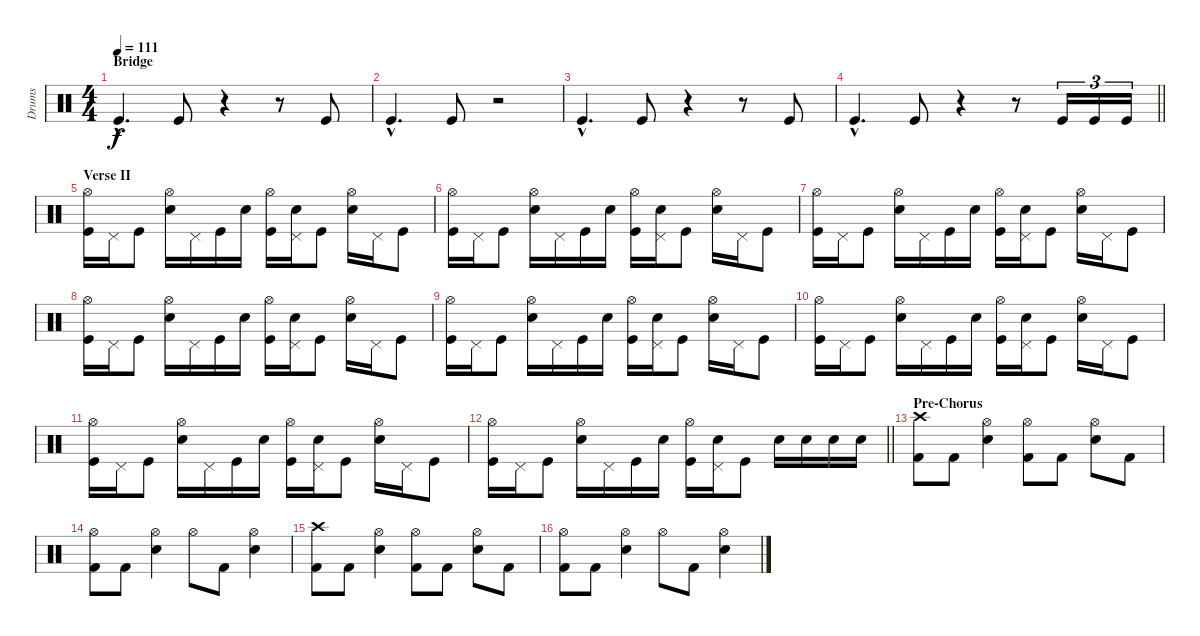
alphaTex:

\track ("Drums" "Drums") {instrument percussion}
\staff {score}
\articulation defaults
\ts (4 4)
\section ("" "Bridge")
\tempo 111
\clef neutral
\ks c "Kick (hit)"{hac}.4{d dy f} "Kick (hit)".8
r.4 r.8 "Kick (hit)".8 |
"Kick (hit)"{hac}.4{d} "Kick (hit)".8 r.2 |
"Kick (hit)"{hac}.4{d} "Kick (hit)".8 r.4 r.8 "Kick (hit)".8 |
\barLineRight lightlight "Kick (hit)"{hac}.4{d} "Kick (hit)".8
r.4 r.8 "Kick (hit)".16{tu (3 2)} "Kick (hit)".16{tu (3 2)} "Kick (hit)".16{tu (3 2)} |
\section ("" "Verse II")
("Hi-Hat (open)" "Kick (hit)").16 "Pedal Hi-Hat (hit)".16 "Kick (hit)".8 ("Hi-Hat (open)" "Electric Snare (hit)").16 "Pedal Hi-Hat (hit)".16 "Kick (hit)".16 "Electric Snare (hit)".16 ("Hi-Hat (open)" "Kick (hit)").16 ("Pedal Hi-Hat (hit)" "Electric Snare (hit)").16 "Kick (hit)".8 ("Hi-Hat (open)" "Electric Snare (hit)").16 "Pedal Hi-Hat (hit)".16 "Kick (hit)".8 |
("Hi-Hat (open)" "Kick (hit)").16 "Pedal Hi-Hat (hit)".16 "Kick (hit)".8 ("Hi-Hat (open)" "Electric Snare (hit)").16 "Pedal Hi-Hat (hit)".16 "Kick (hit)".16 "Electric Snare (hit)".16 ("Hi-Hat (open)" "Kick (hit)").16 ("Pedal Hi-Hat (hit)" "Electric Snare (hit)").16 "Kick (hit)".8 ("Hi-Hat (open)" "Electric Snare (hit)").16 "Pedal Hi-Hat (hit)".16 "Kick (hit)".8 |
("Hi-Hat (open)" "Kick (hit)").16 "Pedal Hi-Hat (hit)".16 "Kick (hit)".8 ("Hi-Hat (open)" "Electric Snare (hit)").16 "Pedal Hi-Hat (hit)".16 "Kick (hit)".16 "Electric Snare (hit)".16 ("Hi-Hat (open)" "Kick (hit)").16 ("Pedal Hi-Hat (hit)" "Electric Snare (hit)").16 "Kick (hit)".8 ("Hi-Hat (open)" "Electric Snare (hit)").16 "Pedal Hi-Hat (hit)".16 "Kick (hit)".8 |
("Hi-Hat (open)" "Kick (hit)").16 "Pedal Hi-Hat (hit)".16 "Kick (hit)".8 ("Hi-Hat (open)" "Electric Snare (hit)").16 "Pedal Hi-Hat (hit)".16 "Kick (hit)".16 "Electric Snare (hit)".16 ("Hi-Hat (open)" "Kick (hit)").16 ("Pedal Hi-Hat (hit)" "Electric Snare (hit)").16 "Kick (hit)".8 ("Hi-Hat (open)" "Electric Snare (hit)").16 "Pedal Hi-Hat (hit)".16 "Kick (hit)".8 |
("Hi-Hat (open)" "Kick (hit)").16 "Pedal Hi-Hat (hit)".16 "Kick (hit)".8 ("Hi-Hat (open)" "Electric Snare (hit)").16 "Pedal Hi-Hat (hit)".16 "Kick (hit)".16 "Electric Snare (hit)".16 ("Hi-Hat (open)" "Kick (hit)").16 ("Pedal Hi-Hat (hit)" "Electric Snare (hit)").16 "Kick (hit)".8 ("Hi-Hat (open)" "Electric Snare (hit)").16 "Pedal Hi-Hat (hit)".16 "Kick (hit)".8 |
("Hi-Hat (open)" "Kick (hit)").16 "Pedal Hi-Hat (hit)".16 "Kick (hit)".8 ("Hi-Hat (open)" "Electric Snare (hit)").16 "Pedal Hi-Hat (hit)".16 "Kick (hit)".16 "Electric Snare (hit)".16 ("Hi-Hat (open)" "Kick (hit)").16 ("Pedal Hi-Hat (hit)" "Electric Snare (hit)").16 "Kick (hit)".8 ("Hi-Hat (open)" "Electric Snare (hit)").16 "Pedal Hi-Hat (hit)".16 "Kick (hit)".8 |
("Hi-Hat (open)" "Kick (hit)").16 "Pedal Hi-Hat (hit)".16 "Kick (hit)".8 ("Hi-Hat (open)" "Electric Snare (hit)").16 "Pedal Hi-Hat (hit)".16 "Kick (hit)".16 "Electric Snare (hit)".16 ("Hi-Hat (open)" "Kick (hit)").16 ("Pedal Hi-Hat (hit)" "Electric Snare (hit)").16 "Kick (hit)".8 ("Hi-Hat (open)" "Electric Snare (hit)").16 "Pedal Hi-Hat (hit)".16 "Kick (hit)".8 |
\barLineRight lightlight
("Hi-Hat (open)" "Kick (hit)").16 "Pedal Hi-Hat (hit)".16 "Kick (hit)".8 ("Hi-Hat (open)" "Electric Snare (hit)").16 "Pedal Hi-Hat (hit)".16 "Kick (hit)".16 "Electric Snare (hit)".16 ("Hi-Hat (open)" "Kick (hit)").16 ("Pedal Hi-Hat (hit)" "Electric Snare (hit)").16 "Kick (hit)".8 "Snare (hit) 2".16 "Snare (hit) 2".16 "Snare (hit) 2".16 "Snare (hit) 2".16 |
\section ("" "Pre-Chorus ")
("Crash high (hit)" "Kick (hit) 2").8 "Kick (hit) 2".8 ("Hi-Hat (open)" "Snare (hit) 2").4 ("Hi-Hat (open)" "Kick (hit) 2").8 "Kick (hit) 2".8 ("Hi-Hat (open)" "Snare (hit) 2").8 "Kick (hit) 2".8 |
("Hi-Hat (open)" "Kick (hit) 2").8 "Kick (hit) 2".8 ("Hi-Hat (open)" "Snare (hit) 2").4 "Hi-Hat (open)".8 "Kick (hit) 2".8 ("Hi-Hat (open)" "Snare (hit) 2").4 |
("Crash high (hit)" "Kick (hit) 2").8 "Kick (hit) 2".8 ("Hi-Hat (open)" "Snare (hit) 2").4 ("Hi-Hat (open)" "Kick (hit) 2").8 "Kick (hit) 2".8 ("Hi-Hat (open)" "Snare (hit) 2").8 "Kick (hit) 2".8 |
("Hi-Hat (open)" "Kick (hit) 2").8 "Kick (hit) 2".8 ("Hi-Hat (open)" "Snare (hit) 2").4 "Hi-Hat (open)".8 "Kick (hit) 2".8 ("Hi-Hat (open)" "Snare (hit) 2").4
